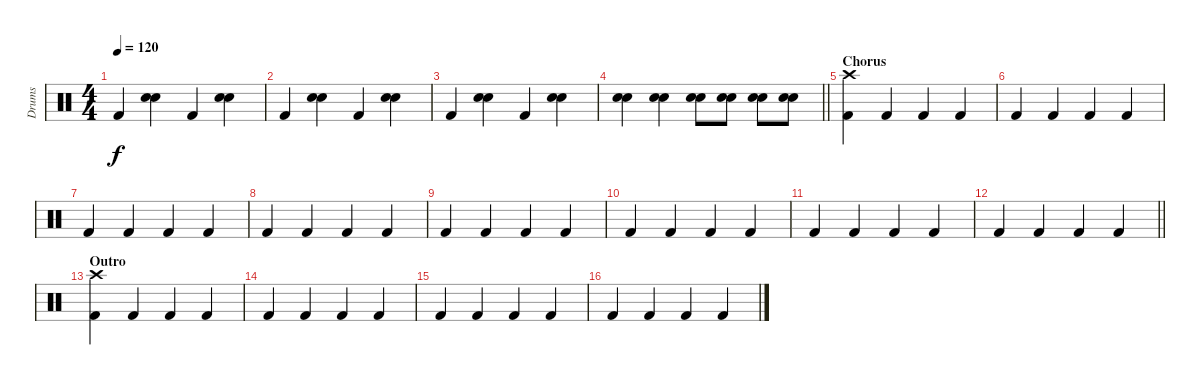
\track ("Drums" "Drums") {instrument percussion}
\staff {score}
\articulation defaults
\ts (4 4)
\tempo 120
\clef neutral
\ks c "Kick (hit) 2".4{dy f}
("Electric Snare (hit)" "Snare (hit) 2").4 "Kick (hit) 2".4 ("Electric Snare (hit)" "Snare (hit) 2").4 |
"Kick (hit) 2".4 ("Electric Snare (hit)" "Snare (hit) 2").4 "Kick (hit) 2".4 ("Electric Snare (hit)" "Snare (hit) 2").4 |
"Kick (hit) 2".4 ("Electric Snare (hit)" "Snare (hit) 2").4 "Kick (hit) 2".4 ("Electric Snare (hit)" "Snare (hit) 2").4 |
\barLineRight lightlight
("Electric Snare (hit)" "Snare (hit) 2").4 ("Electric Snare (hit)" "Snare (hit) 2").4 ("Electric Snare (hit)" "Snare (hit) 2").8 ("Electric Snare (hit)" "Snare (hit) 2").8 ("Electric Snare (hit)" "Snare (hit) 2").8 ("Electric Snare (hit)" "Snare (hit) 2").8 |
\section ("" "Chorus")
("Crash high (hit)" "Kick (hit) 2").4 "Kick (hit) 2".4 "Kick (hit) 2".4 "Kick (hit) 2".4 |
"Kick (hit) 2".4 "Kick (hit) 2".4 "Kick (hit) 2".4 "Kick (hit) 2".4 |
"Kick (hit) 2".4 "Kick (hit) 2".4 "Kick (hit) 2".4 "Kick (hit) 2".4 |
"Kick (hit) 2".4 "Kick (hit) 2".4 "Kick (hit) 2".4 "Kick (hit) 2".4 |
"Kick (hit) 2".4 "Kick (hit) 2".4 "Kick (hit) 2".4 "Kick (hit) 2".4 |
"Kick (hit) 2".4 "Kick (hit) 2".4 "Kick (hit) 2".4 "Kick (hit) 2".4 |
"Kick (hit) 2".4 "Kick (hit) 2".4 "Kick (hit) 2".4 "Kick (hit) 2".4 |
\barLineRight lightlight "Kick (hit) 2".4 "Kick (hit) 2".4 "Kick (hit) 2".4 "Kick (hit) 2".4
|
\section ("" "Outro")
("Crash high (hit)" "Kick (hit) 2").4 "Kick (hit) 2".4 "Kick (hit) 2".4 "Kick (hit) 2".4 |
"Kick (hit) 2".4 "Kick (hit) 2".4 "Kick (hit) 2".4 "Kick (hit) 2".4 |
"Kick (hit) 2".4 "Kick (hit) 2".4 "Kick (hit) 2".4 "Kick (hit) 2".4 |
"Kick (hit) 2".4 "Kick (hit) 2".4 "Kick (hit) 2".4 "Kick (hit) 2".4
